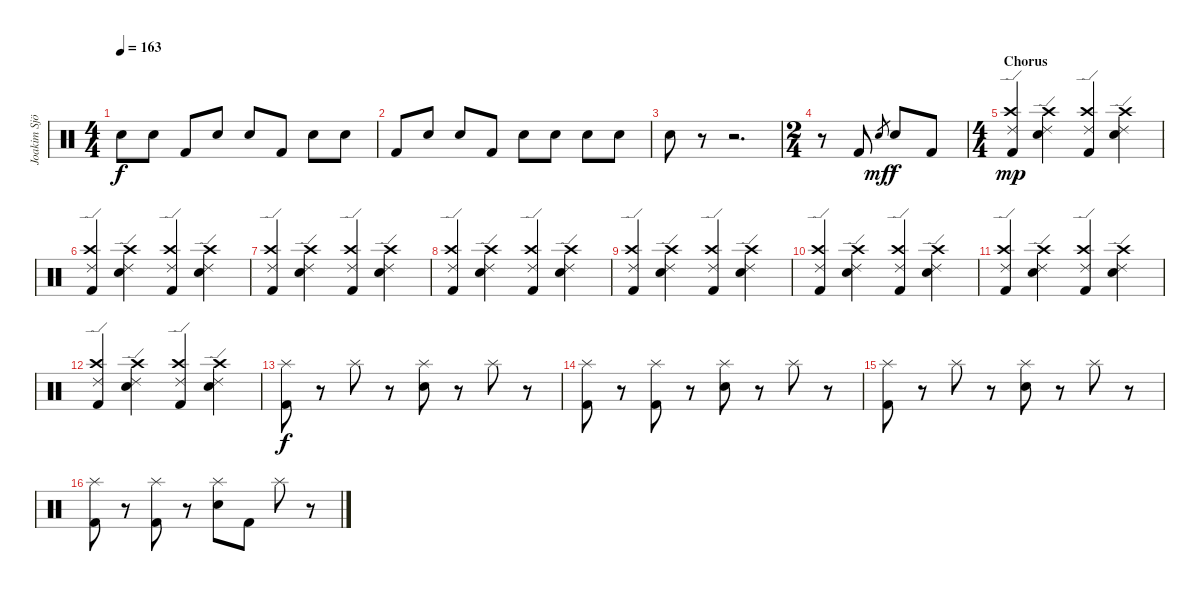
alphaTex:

\track ("Joakim Sjöberg" "Joakim Sjö") {instrument percussion}
\staff {score}
\articulation defaults
\ts (4 4)
\tempo 163
\clef neutral
\ks c "Electric Snare (hit)".8{dy f} "Electric Snare (hit)".8 "Kick (hit) 2".8 "Electric Snare (hit)".8 "Electric Snare (hit)".8 "Kick (hit) 2".8 "Electric Snare (hit)".8 "Electric Snare (hit)".8
|
"Kick (hit) 2".8 "Electric Snare (hit)".8 "Electric Snare (hit)".8 "Kick (hit) 2".8 "Electric Snare (hit)".8 "Electric Snare (hit)".8 "Electric Snare (hit)".8 "Electric Snare (hit)".8 |
"Electric Snare (hit)".8 r.8 r.2{d} |
\ts (2 4)
r.8 "Kick (hit) 2".8 "Electric Snare (hit)".8{gr dy mf} "Electric Snare (hit)".8{dy f} "Kick (hit) 2".8 |
\ts (4 4)
\section ("" "Chorus")
("Crash high (hit)" "Ride (edge) 2" "Kick (hit) 2").4{dy mp} ("Crash high (hit)" "Ride (edge) 2" "Electric Snare (hit)").4 ("Crash high (hit)" "Ride (edge) 2" "Kick (hit) 2").4 ("Crash high (hit)" "Ride (edge) 2" "Electric Snare (hit)").4 |
("Crash high (hit)" "Ride (edge) 2" "Kick (hit) 2").4 ("Crash high (hit)" "Ride (edge) 2" "Electric Snare (hit)").4 ("Crash high (hit)" "Ride (edge) 2" "Kick (hit) 2").4 ("Crash high (hit)" "Ride (edge) 2" "Electric Snare (hit)").4 |
("Crash high (hit)" "Ride (edge) 2" "Kick (hit) 2").4 ("Crash high (hit)" "Ride (edge) 2" "Electric Snare (hit)").4 ("Crash high (hit)" "Ride (edge) 2" "Kick (hit) 2").4 ("Crash high (hit)" "Ride (edge) 2" "Electric Snare (hit)").4 |
("Crash high (hit)" "Ride (edge) 2" "Kick (hit) 2").4 ("Crash high (hit)" "Ride (edge) 2" "Electric Snare (hit)").4 ("Crash high (hit)" "Ride (edge) 2" "Kick (hit) 2").4 ("Crash high (hit)" "Ride (edge) 2" "Electric Snare (hit)").4 |
("Crash high (hit)" "Ride (edge) 2" "Kick (hit) 2").4 ("Crash high (hit)" "Ride (edge) 2" "Electric Snare (hit)").4 ("Crash high (hit)" "Ride (edge) 2" "Kick (hit) 2").4 ("Crash high (hit)" "Ride (edge) 2" "Electric Snare (hit)").4 |
("Crash high (hit)" "Ride (edge) 2" "Kick (hit) 2").4 ("Crash high (hit)" "Ride (edge) 2" "Electric Snare (hit)").4 ("Crash high (hit)" "Ride (edge) 2" "Kick (hit) 2").4 ("Crash high (hit)" "Ride (edge) 2" "Electric Snare (hit)").4 |
("Crash high (hit)" "Ride (edge) 2" "Kick (hit) 2").4 ("Crash high (hit)" "Ride (edge) 2" "Electric Snare (hit)").4 ("Crash high (hit)" "Ride (edge) 2" "Kick (hit) 2").4 ("Crash high (hit)" "Ride (edge) 2" "Electric Snare (hit)").4 |
("Crash high (hit)" "Ride (edge) 2" "Kick (hit) 2").4 ("Crash high (hit)" "Ride (edge) 2" "Electric Snare (hit)").4 ("Crash high (hit)" "Ride (edge) 2" "Kick (hit) 2").4 ("Crash high (hit)" "Ride (edge) 2" "Electric Snare (hit)").4 |
("Splash (hit)" "Kick (hit) 2").8{dy f} r.8 "Splash (hit)".8 r.8 ("Splash (hit)" "Electric Snare (hit)").8 r.8 "Splash (hit)".8 r.8 |
("Splash (hit)" "Kick (hit) 2").8 r.8 ("Splash (hit)" "Kick (hit) 2").8 r.8 ("Splash (hit)" "Electric Snare (hit)").8 r.8 "Splash (hit)".8 r.8 |
("Splash (hit)" "Kick (hit) 2").8 r.8 "Splash (hit)".8 r.8 ("Splash (hit)" "Electric Snare (hit)").8 r.8 "Splash (hit)".8 r.8 |
("Splash (hit)" "Kick (hit) 2").8 r.8 ("Splash (hit)" "Kick (hit) 2").8 r.8 ("Splash (hit)" "Electric Snare (hit)").8 "Kick (hit) 2".8 "Splash (hit)".8 r.8
